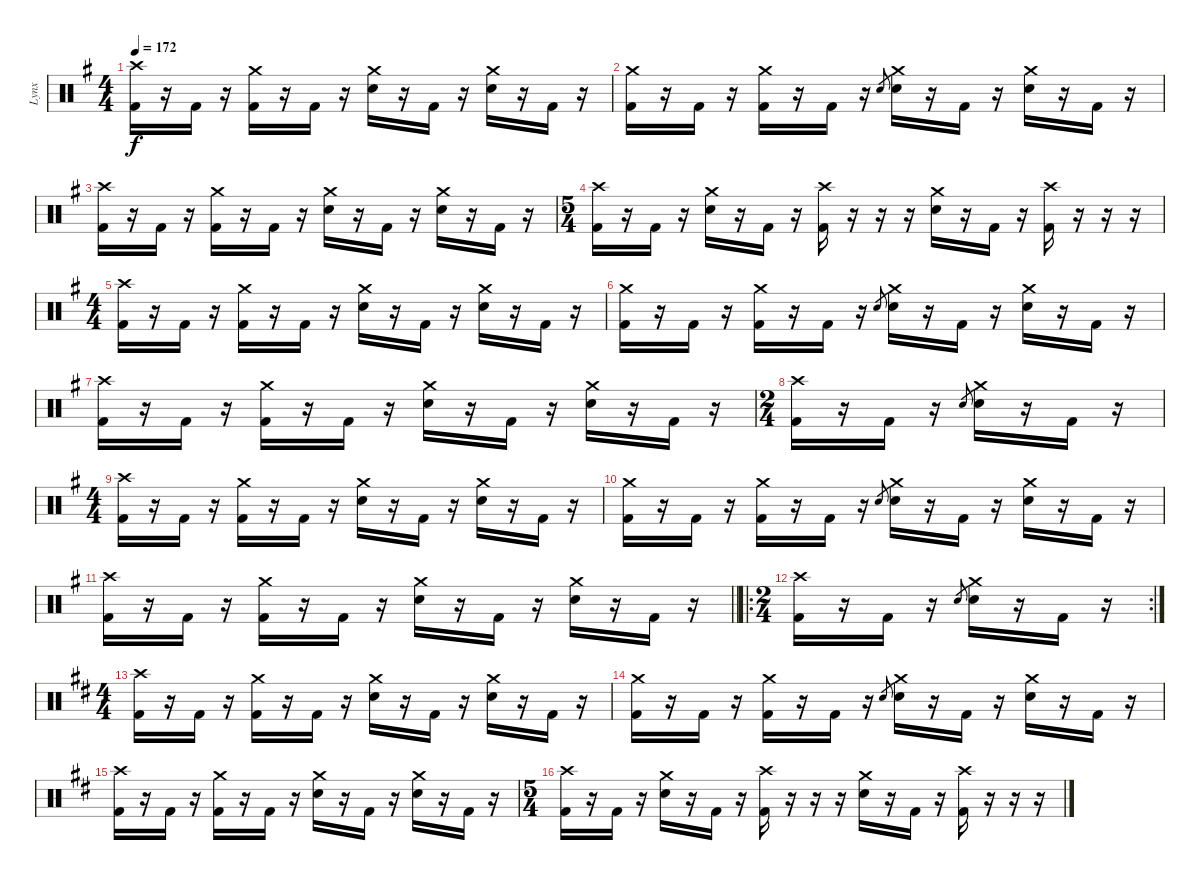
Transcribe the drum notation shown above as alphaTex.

\track ("Lynx" "Lynx") {instrument percussion}
\staff {score}
\articulation defaults
\ts (4 4)
\tempo 172
\clef neutral
\ks g
("Crash high (hit)" "Kick (hit) 2").16{dy f} r.16 "Kick (hit) 2".16 r.16 ("Crash medium (hit)" "Kick (hit) 2").16 r.16 "Kick (hit) 2".16 r.16 ("Crash medium (hit)" "Electric Snare (hit)").16 r.16 "Kick (hit) 2".16 r.16 ("Crash medium (hit)" "Electric Snare (hit)").16 r.16 "Kick (hit) 2".16 r.16 |
("Crash medium (hit)" "Kick (hit) 2").16 r.16 "Kick (hit) 2".16 r.16 ("Crash medium (hit)" "Kick (hit) 2").16 r.16 "Kick (hit) 2".16 r.16 "Electric Snare (hit)".8{gr} ("Crash medium (hit)" "Electric Snare (hit)").16 r.16 "Kick (hit) 2".16 r.16 ("Crash medium (hit)" "Electric Snare (hit)").16 r.16 "Kick (hit) 2".16 r.16 |
("Crash high (hit)" "Kick (hit) 2").16 r.16 "Kick (hit) 2".16 r.16 ("Crash medium (hit)" "Kick (hit) 2").16 r.16 "Kick (hit) 2".16 r.16 ("Crash medium (hit)" "Electric Snare (hit)").16 r.16 "Kick (hit) 2".16 r.16 ("Crash medium (hit)" "Electric Snare (hit)").16 r.16 "Kick (hit) 2".16 r.16 |
\ts (5 4)
("Crash high (hit)" "Kick (hit) 2").16 r.16 "Kick (hit) 2".16 r.16 ("Crash medium (hit)" "Electric Snare (hit)").16 r.16 "Kick (hit) 2".16 r.16 ("Crash high (hit)" "Kick (hit) 2").16 r.16 r.16 r.16 ("Crash medium (hit)" "Electric Snare (hit)").16 r.16 "Kick (hit) 2".16 r.16 ("Crash high (hit)" "Kick (hit) 2").16 r.16 r.16 r.16 |
\ts (4 4)
("Crash high (hit)" "Kick (hit) 2").16 r.16 "Kick (hit) 2".16 r.16 ("Crash medium (hit)" "Kick (hit) 2").16 r.16 "Kick (hit) 2".16 r.16 ("Crash medium (hit)" "Electric Snare (hit)").16 r.16 "Kick (hit) 2".16 r.16 ("Crash medium (hit)" "Electric Snare (hit)").16 r.16 "Kick (hit) 2".16 r.16 |
("Crash medium (hit)" "Kick (hit) 2").16 r.16 "Kick (hit) 2".16 r.16 ("Crash medium (hit)" "Kick (hit) 2").16 r.16 "Kick (hit) 2".16 r.16 "Electric Snare (hit)".8{gr} ("Crash medium (hit)" "Electric Snare (hit)").16 r.16 "Kick (hit) 2".16 r.16 ("Crash medium (hit)" "Electric Snare (hit)").16 r.16 "Kick (hit) 2".16 r.16 |
("Crash high (hit)" "Kick (hit) 2").16 r.16 "Kick (hit) 2".16 r.16 ("Crash medium (hit)" "Kick (hit) 2").16 r.16 "Kick (hit) 2".16 r.16 ("Crash medium (hit)" "Electric Snare (hit)").16 r.16 "Kick (hit) 2".16 r.16 ("Crash medium (hit)" "Electric Snare (hit)").16 r.16 "Kick (hit) 2".16 r.16 |
\ts (2 4)
("Crash high (hit)" "Kick (hit) 2").16 r.16 "Kick (hit) 2".16 r.16 "Electric Snare (hit)".8{gr} ("Crash medium (hit)" "Electric Snare (hit)").16 r.16 "Kick (hit) 2".16 r.16 |
\ts (4 4)
("Crash high (hit)" "Kick (hit) 2").16 r.16 "Kick (hit) 2".16 r.16 ("Crash medium (hit)" "Kick (hit) 2").16 r.16 "Kick (hit) 2".16 r.16 ("Crash medium (hit)" "Electric Snare (hit)").16 r.16 "Kick (hit) 2".16 r.16 ("Crash medium (hit)" "Electric Snare (hit)").16 r.16 "Kick (hit) 2".16 r.16 |
("Crash medium (hit)" "Kick (hit) 2").16 r.16 "Kick (hit) 2".16 r.16 ("Crash medium (hit)" "Kick (hit) 2").16 r.16 "Kick (hit) 2".16 r.16 "Electric Snare (hit)".8{gr} ("Crash medium (hit)" "Electric Snare (hit)").16 r.16 "Kick (hit) 2".16 r.16 ("Crash medium (hit)" "Electric Snare (hit)").16 r.16 "Kick (hit) 2".16 r.16 |
\barLineRight lightlight
("Crash high (hit)" "Kick (hit) 2").16 r.16 "Kick (hit) 2".16 r.16 ("Crash medium (hit)" "Kick (hit) 2").16 r.16 "Kick (hit) 2".16 r.16 ("Crash medium (hit)" "Electric Snare (hit)").16 r.16 "Kick (hit) 2".16 r.16 ("Crash medium (hit)" "Electric Snare (hit)").16 r.16 "Kick (hit) 2".16 r.16 |
\ro
\rc 2
\ts (2 4)
\section ("" "")
("Crash high (hit)" "Kick (hit) 2").16 r.16 "Kick (hit) 2".16 r.16 "Electric Snare (hit)".8{gr} ("Crash medium (hit)" "Electric Snare (hit)").16 r.16 "Kick (hit) 2".16 r.16 |
\ts (4 4)
\ks d
("Crash high (hit)" "Kick (hit) 2").16 r.16 "Kick (hit) 2".16 r.16 ("Crash medium (hit)" "Kick (hit) 2").16 r.16 "Kick (hit) 2".16 r.16 ("Crash medium (hit)" "Electric Snare (hit)").16 r.16 "Kick (hit) 2".16 r.16 ("Crash medium (hit)" "Electric Snare (hit)").16 r.16 "Kick (hit) 2".16 r.16 |
("Crash medium (hit)" "Kick (hit) 2").16 r.16 "Kick (hit) 2".16 r.16 ("Crash medium (hit)" "Kick (hit) 2").16 r.16 "Kick (hit) 2".16 r.16 "Electric Snare (hit)".8{gr} ("Crash medium (hit)" "Electric Snare (hit)").16 r.16 "Kick (hit) 2".16 r.16 ("Crash medium (hit)" "Electric Snare (hit)").16 r.16 "Kick (hit) 2".16 r.16 |
("Crash high (hit)" "Kick (hit) 2").16 r.16 "Kick (hit) 2".16 r.16 ("Crash medium (hit)" "Kick (hit) 2").16 r.16 "Kick (hit) 2".16 r.16 ("Crash medium (hit)" "Electric Snare (hit)").16 r.16 "Kick (hit) 2".16 r.16 ("Crash medium (hit)" "Electric Snare (hit)").16 r.16 "Kick (hit) 2".16 r.16 |
\ts (5 4)
("Crash high (hit)" "Kick (hit) 2").16 r.16 "Kick (hit) 2".16 r.16 ("Crash medium (hit)" "Electric Snare (hit)").16 r.16 "Kick (hit) 2".16 r.16 ("Crash high (hit)" "Kick (hit) 2").16 r.16 r.16 r.16 ("Crash medium (hit)" "Electric Snare (hit)").16 r.16 "Kick (hit) 2".16 r.16 ("Crash high (hit)" "Kick (hit) 2").16 r.16 r.16 r.16
